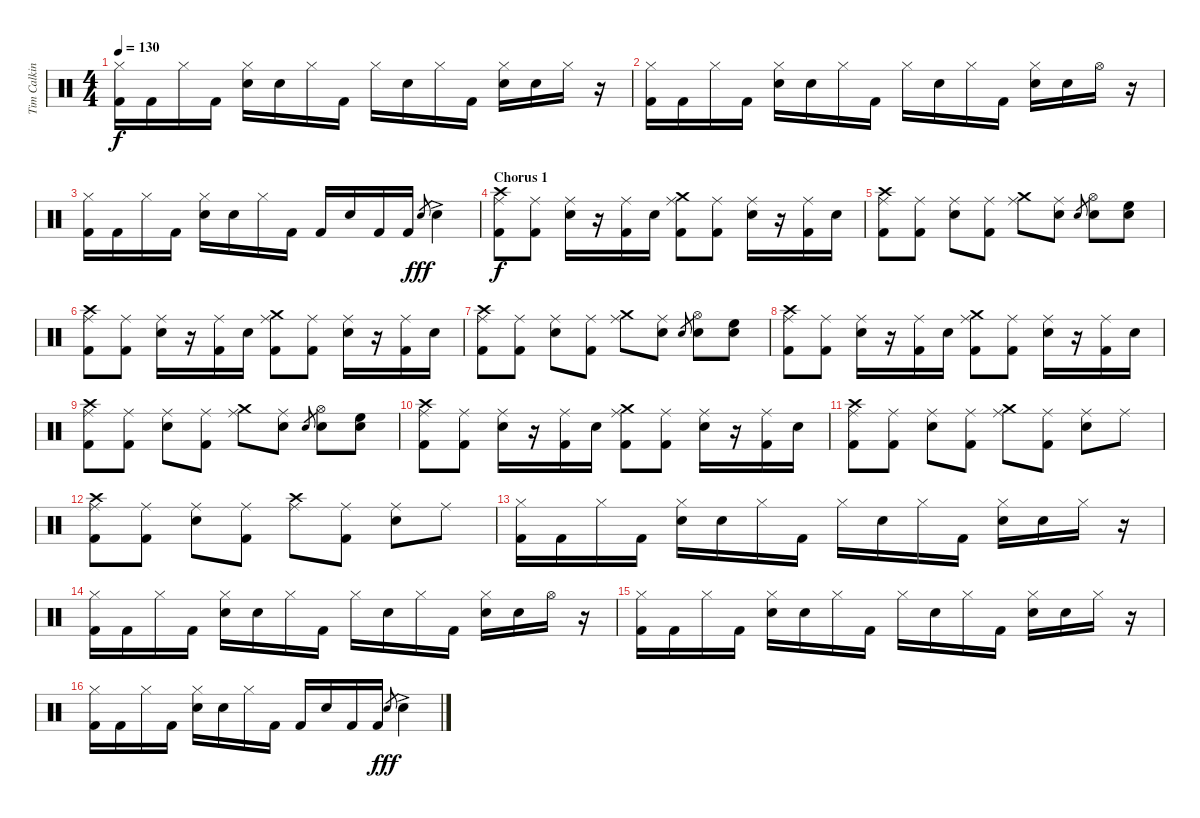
\track ("Tim Calkin" "Tim Calkin") {instrument percussion}
\staff {score}
\articulation defaults
\ts (4 4)
\tempo 130
\clef neutral
\ks c
("Hi-Hat (closed)" "Kick (hit) 2").16{dy f} "Kick (hit) 2".16 "Hi-Hat (closed)".16 "Kick (hit) 2".16 ("Hi-Hat (closed)" "Snare (hit) 2").16 "Snare (hit) 2".16 "Hi-Hat (closed)".16 "Kick (hit) 2".16 "Hi-Hat (closed)".16 "Snare (hit) 2".16 "Hi-Hat (closed)".16 "Kick (hit) 2".16 ("Hi-Hat (closed)" "Snare (hit) 2").16 "Snare (hit) 2".16 "Hi-Hat (closed)".16 r.16 |
("Hi-Hat (closed)" "Kick (hit) 2").16 "Kick (hit) 2".16 "Hi-Hat (closed)".16 "Kick (hit) 2".16 ("Hi-Hat (closed)" "Snare (hit) 2").16 "Snare (hit) 2".16 "Hi-Hat (closed)".16 "Kick (hit) 2".16 "Hi-Hat (closed)".16 "Snare (hit) 2".16 "Hi-Hat (closed)".16 "Kick (hit) 2".16 ("Hi-Hat (closed)" "Snare (hit) 2").16 "Snare (hit) 2".16 "Hi-Hat (open)".16 r.16 |
("Hi-Hat (closed)" "Kick (hit) 2").16 "Kick (hit) 2".16 "Hi-Hat (closed)".16 "Kick (hit) 2".16 ("Hi-Hat (closed)" "Snare (hit) 2").16 "Snare (hit) 2".16 "Hi-Hat (closed)".16 "Kick (hit) 2".16 "Kick (hit) 2".16 "Snare (hit) 2".16 "Kick (hit) 2".16 "Kick (hit) 2".16 "Snare (hit) 2".8{gr dy fff} "Snare (hit) 2"{ac}.4 |
\section ("" "Chorus 1")
("Ride (middle)" "Crash high (hit)" "Kick (hit) 2").8{dy f} ("Ride (middle)" "Kick (hit) 2").8 ("Ride (middle)" "Snare (hit) 2").16 r.16 ("Ride (middle)" "Kick (hit) 2").16 "Snare (hit) 2".16 ("Ride (middle)" "Crash medium (hit)" "Kick (hit) 2").8 ("Ride (middle)" "Kick (hit) 2").8 ("Ride (middle)" "Snare (hit) 2").16 r.16 ("Ride (middle)" "Kick (hit) 2").16 "Snare (hit) 2".16 |
("Ride (middle)" "Crash high (hit)" "Kick (hit) 2").8 ("Ride (middle)" "Kick (hit) 2").8 ("Ride (middle)" "Snare (hit) 2").8 ("Ride (middle)" "Kick (hit) 2").8 ("Ride (middle)" "Crash medium (hit)").8 ("Ride (middle)" "Snare (hit) 2").8 "Snare (hit) 2".8{gr} ("Hi-Hat (open)" "Snare (hit) 2").8 ("High Floor Tom (hit)" "Snare (hit) 2").8 |
("Ride (middle)" "Crash high (hit)" "Kick (hit) 2").8 ("Ride (middle)" "Kick (hit) 2").8 ("Ride (middle)" "Snare (hit) 2").16 r.16 ("Ride (middle)" "Kick (hit) 2").16 "Snare (hit) 2".16 ("Ride (middle)" "Crash medium (hit)" "Kick (hit) 2").8 ("Ride (middle)" "Kick (hit) 2").8 ("Ride (middle)" "Snare (hit) 2").16 r.16 ("Ride (middle)" "Kick (hit) 2").16 "Snare (hit) 2".16 |
("Ride (middle)" "Crash high (hit)" "Kick (hit) 2").8 ("Ride (middle)" "Kick (hit) 2").8 ("Ride (middle)" "Snare (hit) 2").8 ("Ride (middle)" "Kick (hit) 2").8 ("Ride (middle)" "Crash medium (hit)").8 ("Ride (middle)" "Snare (hit) 2").8 "Snare (hit) 2".8{gr} ("Hi-Hat (open)" "Snare (hit) 2").8 ("High Floor Tom (hit)" "Snare (hit) 2").8 |
("Ride (middle)" "Crash high (hit)" "Kick (hit) 2").8 ("Ride (middle)" "Kick (hit) 2").8 ("Ride (middle)" "Snare (hit) 2").16 r.16 ("Ride (middle)" "Kick (hit) 2").16 "Snare (hit) 2".16 ("Ride (middle)" "Crash medium (hit)" "Kick (hit) 2").8 ("Ride (middle)" "Kick (hit) 2").8 ("Ride (middle)" "Snare (hit) 2").16 r.16 ("Ride (middle)" "Kick (hit) 2").16 "Snare (hit) 2".16 |
("Ride (middle)" "Crash high (hit)" "Kick (hit) 2").8 ("Ride (middle)" "Kick (hit) 2").8 ("Ride (middle)" "Snare (hit) 2").8 ("Ride (middle)" "Kick (hit) 2").8 ("Ride (middle)" "Crash medium (hit)").8 ("Ride (middle)" "Snare (hit) 2").8 "Snare (hit) 2".8{gr} ("Hi-Hat (open)" "Snare (hit) 2").8 ("High Floor Tom (hit)" "Snare (hit) 2").8 |
("Ride (middle)" "Crash high (hit)" "Kick (hit) 2").8 ("Ride (middle)" "Kick (hit) 2").8 ("Ride (middle)" "Snare (hit) 2").16 r.16 ("Ride (middle)" "Kick (hit) 2").16 "Snare (hit) 2".16 ("Ride (middle)" "Crash medium (hit)" "Kick (hit) 2").8 ("Ride (middle)" "Kick (hit) 2").8 ("Ride (middle)" "Snare (hit) 2").16 r.16 ("Ride (middle)" "Kick (hit) 2").16 "Snare (hit) 2".16 |
("Ride (middle)" "Crash high (hit)" "Kick (hit) 2").8 ("Ride (middle)" "Kick (hit) 2").8 ("Ride (middle)" "Snare (hit) 2").8 ("Ride (middle)" "Kick (hit) 2").8 ("Ride (middle)" "Crash medium (hit)").8 ("Ride (middle)" "Kick (hit) 2").8 ("Ride (middle)" "Snare (hit) 2").8 "Ride (middle)".8 |
("Ride (middle)" "Crash high (hit)" "Kick (hit) 2").8 ("Ride (middle)" "Kick (hit) 2").8 ("Ride (middle)" "Snare (hit) 2").8 ("Ride (middle)" "Kick (hit) 2").8 ("Ride (middle)" "Crash high (hit)").8 ("Ride (middle)" "Kick (hit) 2").8 ("Ride (middle)" "Snare (hit) 2").8 "Ride (middle)".8 |
("Hi-Hat (closed)" "Kick (hit) 2").16 "Kick (hit) 2".16 "Hi-Hat (closed)".16 "Kick (hit) 2".16 ("Hi-Hat (closed)" "Snare (hit) 2").16 "Snare (hit) 2".16 "Hi-Hat (closed)".16 "Kick (hit) 2".16 "Hi-Hat (closed)".16 "Snare (hit) 2".16 "Hi-Hat (closed)".16 "Kick (hit) 2".16 ("Hi-Hat (closed)" "Snare (hit) 2").16 "Snare (hit) 2".16 "Hi-Hat (closed)".16 r.16 |
("Hi-Hat (closed)" "Kick (hit) 2").16 "Kick (hit) 2".16 "Hi-Hat (closed)".16 "Kick (hit) 2".16 ("Hi-Hat (closed)" "Snare (hit) 2").16 "Snare (hit) 2".16 "Hi-Hat (closed)".16 "Kick (hit) 2".16 "Hi-Hat (closed)".16 "Snare (hit) 2".16 "Hi-Hat (closed)".16 "Kick (hit) 2".16 ("Hi-Hat (closed)" "Snare (hit) 2").16 "Snare (hit) 2".16 "Hi-Hat (open)".16 r.16 |
("Hi-Hat (closed)" "Kick (hit) 2").16 "Kick (hit) 2".16 "Hi-Hat (closed)".16 "Kick (hit) 2".16 ("Hi-Hat (closed)" "Snare (hit) 2").16 "Snare (hit) 2".16 "Hi-Hat (closed)".16 "Kick (hit) 2".16 "Hi-Hat (closed)".16 "Snare (hit) 2".16 "Hi-Hat (closed)".16 "Kick (hit) 2".16 ("Hi-Hat (closed)" "Snare (hit) 2").16 "Snare (hit) 2".16 "Hi-Hat (closed)".16 r.16 |
("Hi-Hat (closed)" "Kick (hit) 2").16 "Kick (hit) 2".16 "Hi-Hat (closed)".16 "Kick (hit) 2".16 ("Hi-Hat (closed)" "Snare (hit) 2").16 "Snare (hit) 2".16 "Hi-Hat (closed)".16 "Kick (hit) 2".16 "Kick (hit) 2".16 "Snare (hit) 2".16 "Kick (hit) 2".16 "Kick (hit) 2".16 "Snare (hit) 2".8{gr dy fff} "Snare (hit) 2"{ac}.4
